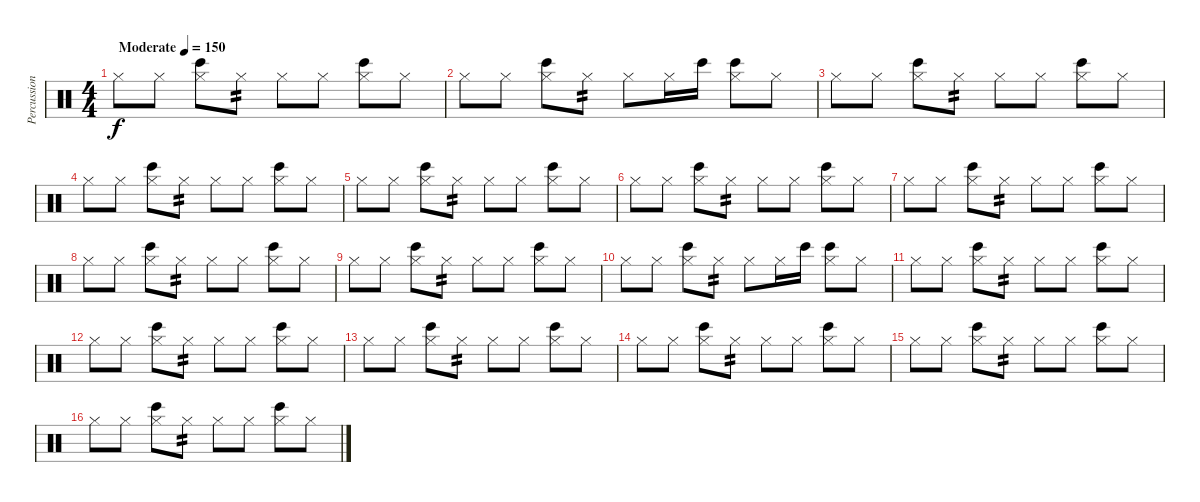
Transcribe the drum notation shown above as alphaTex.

\track ("Percussion" "Percussion") {instrument percussion}
\staff {score}
\articulation defaults
\ts (4 4)
\tempo (150 "Moderate")
\clef neutral
\ks c "Hi-Hat (closed)".8{dy f} "Hi-Hat (closed)".8
("Hi-Hat (closed)" "Bongo High (hit)").8 "Hi-Hat (closed)".8{tp 2} "Hi-Hat (closed)".8 "Hi-Hat (closed)".8 ("Hi-Hat (closed)" "Bongo High (hit)").8 "Hi-Hat (closed)".8 |
"Hi-Hat (closed)".8 "Hi-Hat (closed)".8 ("Hi-Hat (closed)" "Bongo High (hit)").8 "Hi-Hat (closed)".8{tp 2} "Hi-Hat (closed)".8 "Hi-Hat (closed)".16 "Bongo High (hit)".16 ("Hi-Hat (closed)" "Bongo High (hit)").8 "Hi-Hat (closed)".8 |
"Hi-Hat (closed)".8 "Hi-Hat (closed)".8 ("Hi-Hat (closed)" "Bongo High (hit)").8 "Hi-Hat (closed)".8{tp 2} "Hi-Hat (closed)".8 "Hi-Hat (closed)".8 ("Hi-Hat (closed)" "Bongo High (hit)").8 "Hi-Hat (closed)".8 |
"Hi-Hat (closed)".8 "Hi-Hat (closed)".8 ("Hi-Hat (closed)" "Bongo High (hit)").8 "Hi-Hat (closed)".8{tp 2} "Hi-Hat (closed)".8 "Hi-Hat (closed)".8 ("Hi-Hat (closed)" "Bongo High (hit)").8 "Hi-Hat (closed)".8 |
"Hi-Hat (closed)".8 "Hi-Hat (closed)".8 ("Hi-Hat (closed)" "Bongo High (hit)").8 "Hi-Hat (closed)".8{tp 2} "Hi-Hat (closed)".8 "Hi-Hat (closed)".8 ("Hi-Hat (closed)" "Bongo High (hit)").8 "Hi-Hat (closed)".8 |
"Hi-Hat (closed)".8 "Hi-Hat (closed)".8 ("Hi-Hat (closed)" "Bongo High (hit)").8 "Hi-Hat (closed)".8{tp 2} "Hi-Hat (closed)".8 "Hi-Hat (closed)".8 ("Hi-Hat (closed)" "Bongo High (hit)").8 "Hi-Hat (closed)".8 |
"Hi-Hat (closed)".8 "Hi-Hat (closed)".8 ("Hi-Hat (closed)" "Bongo High (hit)").8 "Hi-Hat (closed)".8{tp 2} "Hi-Hat (closed)".8 "Hi-Hat (closed)".8 ("Hi-Hat (closed)" "Bongo High (hit)").8 "Hi-Hat (closed)".8 |
"Hi-Hat (closed)".8 "Hi-Hat (closed)".8 ("Hi-Hat (closed)" "Bongo High (hit)").8 "Hi-Hat (closed)".8{tp 2} "Hi-Hat (closed)".8 "Hi-Hat (closed)".8 ("Hi-Hat (closed)" "Bongo High (hit)").8 "Hi-Hat (closed)".8 |
"Hi-Hat (closed)".8 "Hi-Hat (closed)".8 ("Hi-Hat (closed)" "Bongo High (hit)").8 "Hi-Hat (closed)".8{tp 2} "Hi-Hat (closed)".8 "Hi-Hat (closed)".8 ("Hi-Hat (closed)" "Bongo High (hit)").8 "Hi-Hat (closed)".8 |
"Hi-Hat (closed)".8 "Hi-Hat (closed)".8 ("Hi-Hat (closed)" "Bongo High (hit)").8 "Hi-Hat (closed)".8{tp 2} "Hi-Hat (closed)".8 "Hi-Hat (closed)".16 "Bongo High (hit)".16 ("Hi-Hat (closed)" "Bongo High (hit)").8 "Hi-Hat (closed)".8 |
"Hi-Hat (closed)".8 "Hi-Hat (closed)".8 ("Hi-Hat (closed)" "Bongo High (hit)").8 "Hi-Hat (closed)".8{tp 2} "Hi-Hat (closed)".8 "Hi-Hat (closed)".8 ("Hi-Hat (closed)" "Bongo High (hit)").8 "Hi-Hat (closed)".8 |
"Hi-Hat (closed)".8 "Hi-Hat (closed)".8 ("Hi-Hat (closed)" "Bongo High (hit)").8 "Hi-Hat (closed)".8{tp 2} "Hi-Hat (closed)".8 "Hi-Hat (closed)".8 ("Hi-Hat (closed)" "Bongo High (hit)").8 "Hi-Hat (closed)".8 |
"Hi-Hat (closed)".8 "Hi-Hat (closed)".8 ("Hi-Hat (closed)" "Bongo High (hit)").8 "Hi-Hat (closed)".8{tp 2} "Hi-Hat (closed)".8 "Hi-Hat (closed)".8 ("Hi-Hat (closed)" "Bongo High (hit)").8 "Hi-Hat (closed)".8 |
"Hi-Hat (closed)".8 "Hi-Hat (closed)".8 ("Hi-Hat (closed)" "Bongo High (hit)").8 "Hi-Hat (closed)".8{tp 2} "Hi-Hat (closed)".8 "Hi-Hat (closed)".8 ("Hi-Hat (closed)" "Bongo High (hit)").8 "Hi-Hat (closed)".8 |
"Hi-Hat (closed)".8 "Hi-Hat (closed)".8 ("Hi-Hat (closed)" "Bongo High (hit)").8 "Hi-Hat (closed)".8{tp 2} "Hi-Hat (closed)".8 "Hi-Hat (closed)".8 ("Hi-Hat (closed)" "Bongo High (hit)").8 "Hi-Hat (closed)".8 |
"Hi-Hat (closed)".8 "Hi-Hat (closed)".8 ("Hi-Hat (closed)" "Bongo High (hit)").8 "Hi-Hat (closed)".8{tp 2} "Hi-Hat (closed)".8 "Hi-Hat (closed)".8 ("Hi-Hat (closed)" "Bongo High (hit)").8 "Hi-Hat (closed)".8
